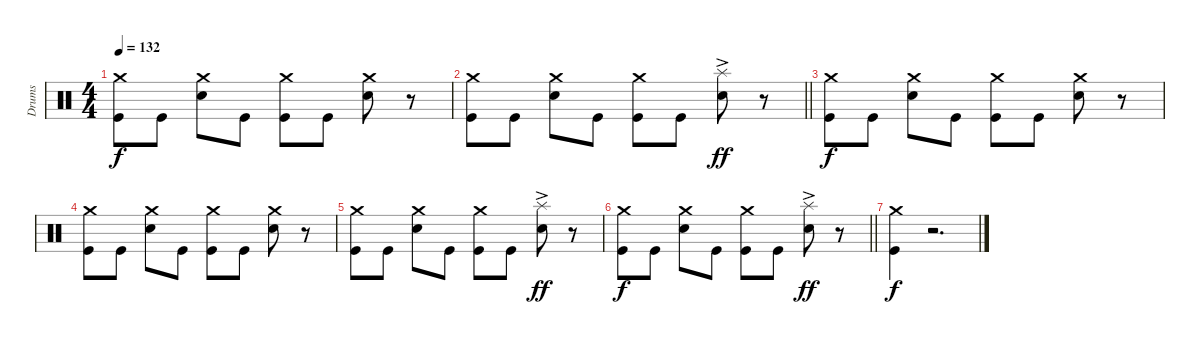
\track ("Drums" "Drums") {instrument percussion}
\staff {score}
\articulation defaults
\ts (4 4)
\tempo 132
\clef neutral
\ks c
("Crash medium (hit)" "Kick (hit)").8{dy f} "Kick (hit)".8 ("Crash medium (hit)" "Snare (hit) 2").8 "Kick (hit)".8 ("Crash medium (hit)" "Kick (hit)").8 "Kick (hit)".8 ("Crash medium (hit)" "Snare (hit) 2").8 r.8 |
\barLineRight lightlight
("Crash medium (hit)" "Kick (hit)").8 "Kick (hit)".8 ("Crash medium (hit)" "Snare (hit) 2").8 "Kick (hit)".8 ("Crash medium (hit)" "Kick (hit)").8 "Kick (hit)".8 ("Splash (hit)"{ac} "Snare (hit) 2").8{dy ff} r.8 |
("Crash medium (hit)" "Kick (hit)").8{dy f} "Kick (hit)".8 ("Crash medium (hit)" "Snare (hit) 2").8 "Kick (hit)".8 ("Crash medium (hit)" "Kick (hit)").8 "Kick (hit)".8 ("Crash medium (hit)" "Snare (hit) 2").8 r.8 |
("Crash medium (hit)" "Kick (hit)").8 "Kick (hit)".8 ("Crash medium (hit)" "Snare (hit) 2").8 "Kick (hit)".8 ("Crash medium (hit)" "Kick (hit)").8 "Kick (hit)".8 ("Crash medium (hit)" "Snare (hit) 2").8 r.8 |
("Crash medium (hit)" "Kick (hit)").8 "Kick (hit)".8 ("Crash medium (hit)" "Snare (hit) 2").8 "Kick (hit)".8 ("Crash medium (hit)" "Kick (hit)").8 "Kick (hit)".8 ("Splash (hit)"{ac} "Snare (hit) 2").8{dy ff} r.8 |
\barLineRight lightlight
("Crash medium (hit)" "Kick (hit)").8{dy f} "Kick (hit)".8 ("Crash medium (hit)" "Snare (hit) 2").8 "Kick (hit)".8 ("Crash medium (hit)" "Kick (hit)").8 "Kick (hit)".8 ("Splash (hit)"{ac} "Snare (hit) 2").8{dy ff} r.8 |
("Crash medium (hit)" "Kick (hit)").4{dy f} r.2{d}
